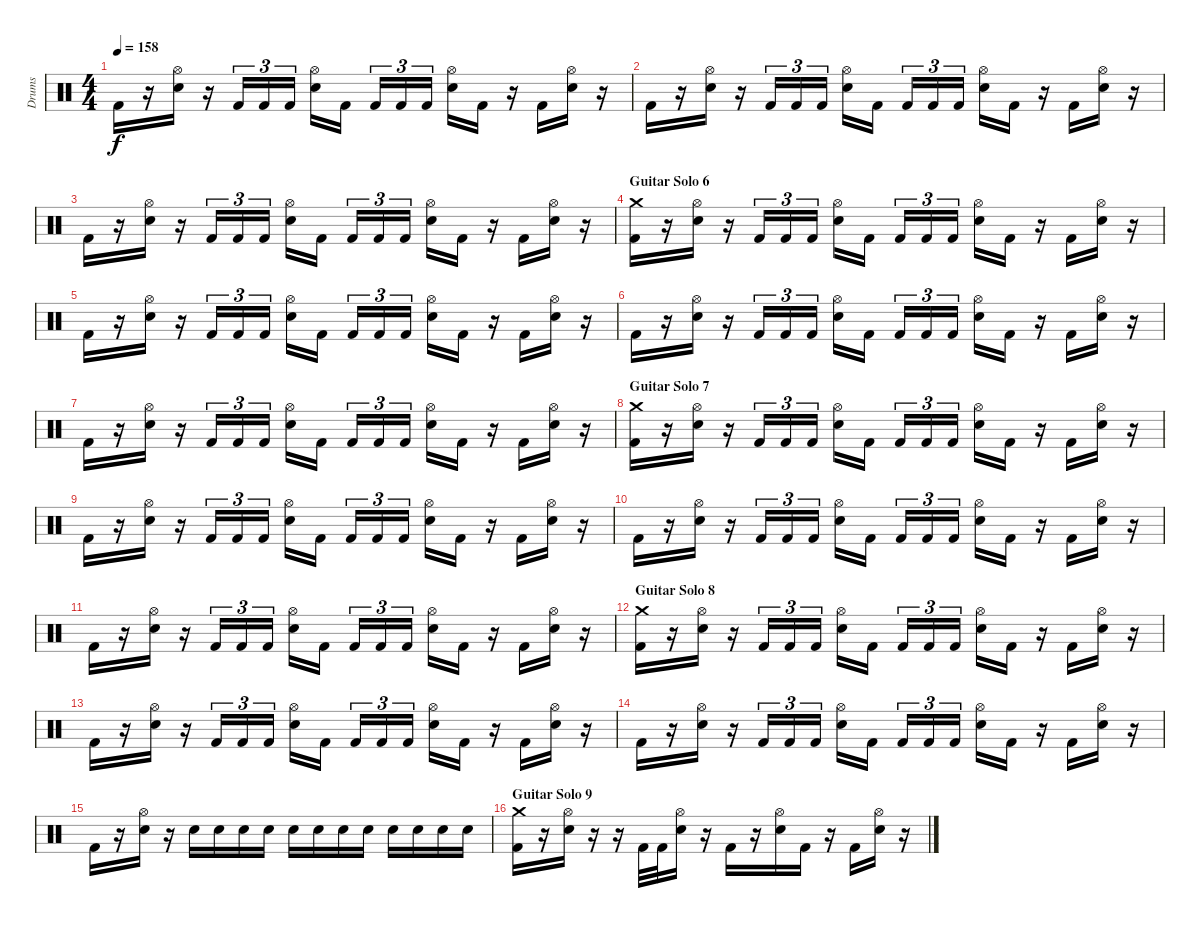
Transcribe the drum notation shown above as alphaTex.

\track ("Drums" "Drums") {instrument percussion}
\staff {score}
\articulation defaults
\ts (4 4)
\tempo 158
\clef neutral
\ks c "Kick (hit) 2".16{dy f}
r.16 ("Hi-Hat (open)" "Electric Snare (hit)").16 r.16 "Kick (hit) 2".16{tu (3 2)} "Kick (hit) 2".16{tu (3 2)} "Kick (hit) 2".16{tu (3 2)} ("Hi-Hat (open)" "Electric Snare (hit)").16 "Kick (hit) 2".16 "Kick (hit) 2".16{tu (3 2)} "Kick (hit) 2".16{tu (3 2)} "Kick (hit) 2".16{tu (3 2)} ("Hi-Hat (open)" "Electric Snare (hit)").16 "Kick (hit) 2".16 r.16 "Kick (hit) 2".16 ("Hi-Hat (open)" "Electric Snare (hit)").16 r.16 |
"Kick (hit) 2".16 r.16 ("Hi-Hat (open)" "Electric Snare (hit)").16 r.16 "Kick (hit) 2".16{tu (3 2)} "Kick (hit) 2".16{tu (3 2)} "Kick (hit) 2".16{tu (3 2)} ("Hi-Hat (open)" "Electric Snare (hit)").16 "Kick (hit) 2".16 "Kick (hit) 2".16{tu (3 2)} "Kick (hit) 2".16{tu (3 2)} "Kick (hit) 2".16{tu (3 2)} ("Hi-Hat (open)" "Electric Snare (hit)").16 "Kick (hit) 2".16 r.16 "Kick (hit) 2".16 ("Hi-Hat (open)" "Electric Snare (hit)").16 r.16 |
"Kick (hit) 2".16 r.16 ("Hi-Hat (open)" "Electric Snare (hit)").16 r.16 "Kick (hit) 2".16{tu (3 2)} "Kick (hit) 2".16{tu (3 2)} "Kick (hit) 2".16{tu (3 2)} ("Hi-Hat (open)" "Electric Snare (hit)").16 "Kick (hit) 2".16 "Kick (hit) 2".16{tu (3 2)} "Kick (hit) 2".16{tu (3 2)} "Kick (hit) 2".16{tu (3 2)} ("Hi-Hat (open)" "Electric Snare (hit)").16 "Kick (hit) 2".16 r.16 "Kick (hit) 2".16 ("Hi-Hat (open)" "Electric Snare (hit)").16 r.16 |
\section ("" "Guitar Solo 6")
("Crash medium (hit)" "Kick (hit) 2").16 r.16 ("Hi-Hat (open)" "Electric Snare (hit)").16 r.16 "Kick (hit) 2".16{tu (3 2)} "Kick (hit) 2".16{tu (3 2)} "Kick (hit) 2".16{tu (3 2)} ("Hi-Hat (open)" "Electric Snare (hit)").16 "Kick (hit) 2".16 "Kick (hit) 2".16{tu (3 2)} "Kick (hit) 2".16{tu (3 2)} "Kick (hit) 2".16{tu (3 2)} ("Hi-Hat (open)" "Electric Snare (hit)").16 "Kick (hit) 2".16 r.16 "Kick (hit) 2".16 ("Hi-Hat (open)" "Electric Snare (hit)").16 r.16 |
"Kick (hit) 2".16 r.16 ("Hi-Hat (open)" "Electric Snare (hit)").16 r.16 "Kick (hit) 2".16{tu (3 2)} "Kick (hit) 2".16{tu (3 2)} "Kick (hit) 2".16{tu (3 2)} ("Hi-Hat (open)" "Electric Snare (hit)").16 "Kick (hit) 2".16 "Kick (hit) 2".16{tu (3 2)} "Kick (hit) 2".16{tu (3 2)} "Kick (hit) 2".16{tu (3 2)} ("Hi-Hat (open)" "Electric Snare (hit)").16 "Kick (hit) 2".16 r.16 "Kick (hit) 2".16 ("Hi-Hat (open)" "Electric Snare (hit)").16 r.16 |
"Kick (hit) 2".16 r.16 ("Hi-Hat (open)" "Electric Snare (hit)").16 r.16 "Kick (hit) 2".16{tu (3 2)} "Kick (hit) 2".16{tu (3 2)} "Kick (hit) 2".16{tu (3 2)} ("Hi-Hat (open)" "Electric Snare (hit)").16 "Kick (hit) 2".16 "Kick (hit) 2".16{tu (3 2)} "Kick (hit) 2".16{tu (3 2)} "Kick (hit) 2".16{tu (3 2)} ("Hi-Hat (open)" "Electric Snare (hit)").16 "Kick (hit) 2".16 r.16 "Kick (hit) 2".16 ("Hi-Hat (open)" "Electric Snare (hit)").16 r.16 |
"Kick (hit) 2".16 r.16 ("Hi-Hat (open)" "Electric Snare (hit)").16 r.16 "Kick (hit) 2".16{tu (3 2)} "Kick (hit) 2".16{tu (3 2)} "Kick (hit) 2".16{tu (3 2)} ("Hi-Hat (open)" "Electric Snare (hit)").16 "Kick (hit) 2".16 "Kick (hit) 2".16{tu (3 2)} "Kick (hit) 2".16{tu (3 2)} "Kick (hit) 2".16{tu (3 2)} ("Hi-Hat (open)" "Electric Snare (hit)").16 "Kick (hit) 2".16 r.16 "Kick (hit) 2".16 ("Hi-Hat (open)" "Electric Snare (hit)").16 r.16 |
\section ("" "Guitar Solo 7")
("Crash medium (hit)" "Kick (hit) 2").16 r.16 ("Hi-Hat (open)" "Electric Snare (hit)").16 r.16 "Kick (hit) 2".16{tu (3 2)} "Kick (hit) 2".16{tu (3 2)} "Kick (hit) 2".16{tu (3 2)} ("Hi-Hat (open)" "Electric Snare (hit)").16 "Kick (hit) 2".16 "Kick (hit) 2".16{tu (3 2)} "Kick (hit) 2".16{tu (3 2)} "Kick (hit) 2".16{tu (3 2)} ("Hi-Hat (open)" "Electric Snare (hit)").16 "Kick (hit) 2".16 r.16 "Kick (hit) 2".16 ("Hi-Hat (open)" "Electric Snare (hit)").16 r.16 |
"Kick (hit) 2".16 r.16 ("Hi-Hat (open)" "Electric Snare (hit)").16 r.16 "Kick (hit) 2".16{tu (3 2)} "Kick (hit) 2".16{tu (3 2)} "Kick (hit) 2".16{tu (3 2)} ("Hi-Hat (open)" "Electric Snare (hit)").16 "Kick (hit) 2".16 "Kick (hit) 2".16{tu (3 2)} "Kick (hit) 2".16{tu (3 2)} "Kick (hit) 2".16{tu (3 2)} ("Hi-Hat (open)" "Electric Snare (hit)").16 "Kick (hit) 2".16 r.16 "Kick (hit) 2".16 ("Hi-Hat (open)" "Electric Snare (hit)").16 r.16 |
"Kick (hit) 2".16 r.16 ("Hi-Hat (open)" "Electric Snare (hit)").16 r.16 "Kick (hit) 2".16{tu (3 2)} "Kick (hit) 2".16{tu (3 2)} "Kick (hit) 2".16{tu (3 2)} ("Hi-Hat (open)" "Electric Snare (hit)").16 "Kick (hit) 2".16 "Kick (hit) 2".16{tu (3 2)} "Kick (hit) 2".16{tu (3 2)} "Kick (hit) 2".16{tu (3 2)} ("Hi-Hat (open)" "Electric Snare (hit)").16 "Kick (hit) 2".16 r.16 "Kick (hit) 2".16 ("Hi-Hat (open)" "Electric Snare (hit)").16 r.16 |
"Kick (hit) 2".16 r.16 ("Hi-Hat (open)" "Electric Snare (hit)").16 r.16 "Kick (hit) 2".16{tu (3 2)} "Kick (hit) 2".16{tu (3 2)} "Kick (hit) 2".16{tu (3 2)} ("Hi-Hat (open)" "Electric Snare (hit)").16 "Kick (hit) 2".16 "Kick (hit) 2".16{tu (3 2)} "Kick (hit) 2".16{tu (3 2)} "Kick (hit) 2".16{tu (3 2)} ("Hi-Hat (open)" "Electric Snare (hit)").16 "Kick (hit) 2".16 r.16 "Kick (hit) 2".16 ("Hi-Hat (open)" "Electric Snare (hit)").16 r.16 |
\section ("" "Guitar Solo 8")
("Crash medium (hit)" "Kick (hit) 2").16 r.16 ("Hi-Hat (open)" "Electric Snare (hit)").16 r.16 "Kick (hit) 2".16{tu (3 2)} "Kick (hit) 2".16{tu (3 2)} "Kick (hit) 2".16{tu (3 2)} ("Hi-Hat (open)" "Electric Snare (hit)").16 "Kick (hit) 2".16 "Kick (hit) 2".16{tu (3 2)} "Kick (hit) 2".16{tu (3 2)} "Kick (hit) 2".16{tu (3 2)} ("Hi-Hat (open)" "Electric Snare (hit)").16 "Kick (hit) 2".16 r.16 "Kick (hit) 2".16 ("Hi-Hat (open)" "Electric Snare (hit)").16 r.16 |
"Kick (hit) 2".16 r.16 ("Hi-Hat (open)" "Electric Snare (hit)").16 r.16 "Kick (hit) 2".16{tu (3 2)} "Kick (hit) 2".16{tu (3 2)} "Kick (hit) 2".16{tu (3 2)} ("Hi-Hat (open)" "Electric Snare (hit)").16 "Kick (hit) 2".16 "Kick (hit) 2".16{tu (3 2)} "Kick (hit) 2".16{tu (3 2)} "Kick (hit) 2".16{tu (3 2)} ("Hi-Hat (open)" "Electric Snare (hit)").16 "Kick (hit) 2".16 r.16 "Kick (hit) 2".16 ("Hi-Hat (open)" "Electric Snare (hit)").16 r.16 |
"Kick (hit) 2".16 r.16 ("Hi-Hat (open)" "Electric Snare (hit)").16 r.16 "Kick (hit) 2".16{tu (3 2)} "Kick (hit) 2".16{tu (3 2)} "Kick (hit) 2".16{tu (3 2)} ("Hi-Hat (open)" "Electric Snare (hit)").16 "Kick (hit) 2".16 "Kick (hit) 2".16{tu (3 2)} "Kick (hit) 2".16{tu (3 2)} "Kick (hit) 2".16{tu (3 2)} ("Hi-Hat (open)" "Electric Snare (hit)").16 "Kick (hit) 2".16 r.16 "Kick (hit) 2".16 ("Hi-Hat (open)" "Electric Snare (hit)").16 r.16 |
"Kick (hit) 2".16 r.16 ("Hi-Hat (open)" "Electric Snare (hit)").16 r.16 "Electric Snare (hit)".16 "Electric Snare (hit)".16 "Electric Snare (hit)".16 "Electric Snare (hit)".16 "Electric Snare (hit)".16 "Electric Snare (hit)".16 "Electric Snare (hit)".16 "Electric Snare (hit)".16 "Electric Snare (hit)".16 "Electric Snare (hit)".16 "Electric Snare (hit)".16 "Electric Snare (hit)".16 |
\section ("" "Guitar Solo 9")
("Crash medium (hit)" "Kick (hit) 2").16 r.16 ("Hi-Hat (open)" "Electric Snare (hit)").16 r.16 r.16 "Kick (hit) 2".32 "Kick (hit) 2".32 ("Hi-Hat (open)" "Electric Snare (hit)").16 r.16 "Kick (hit) 2".16 r.16 ("Hi-Hat (open)" "Electric Snare (hit)").16 "Kick (hit) 2".16 r.16 "Kick (hit) 2".16 ("Hi-Hat (open)" "Electric Snare (hit)").16 r.16
